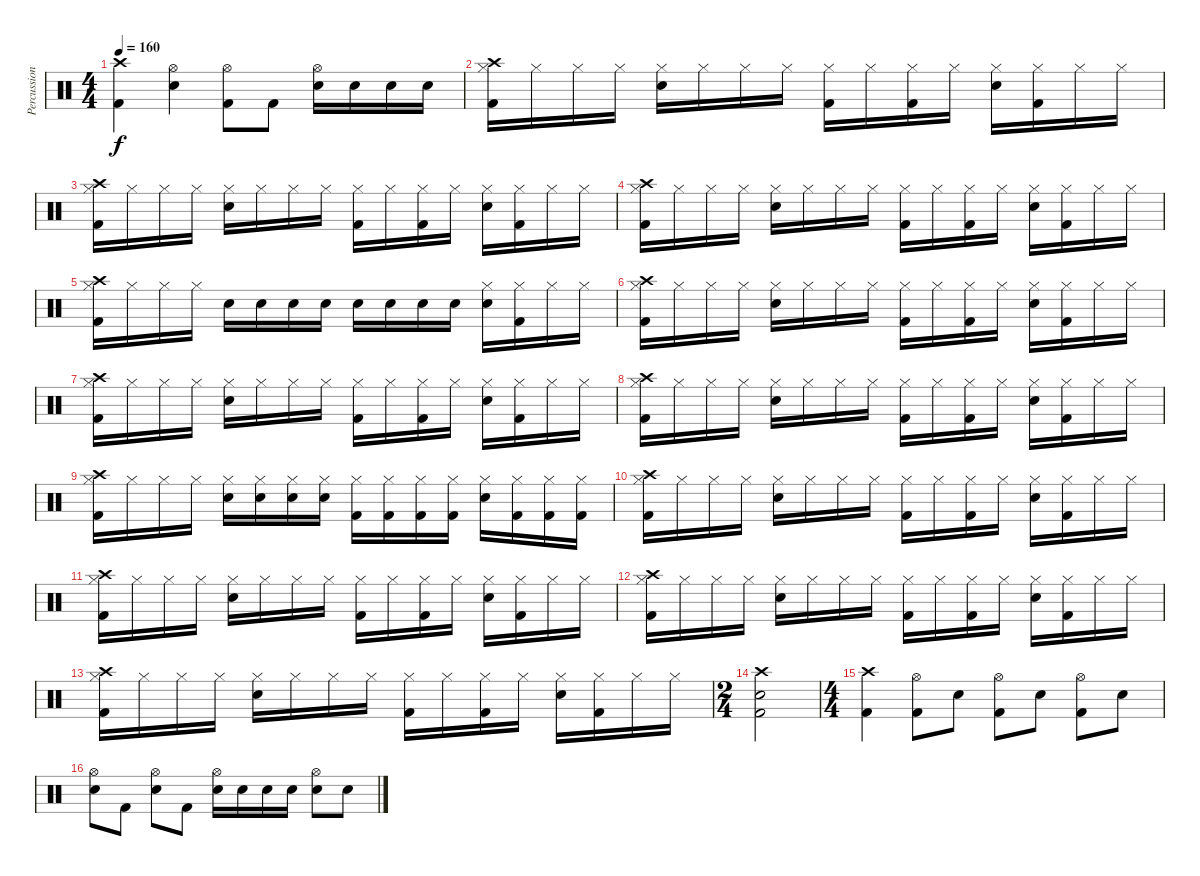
\track ("Percussion" "Percussion") {instrument percussion}
\staff {score}
\articulation defaults
\ts (4 4)
\tempo 160
\clef neutral
\ks c
("Crash high (hit)" "Kick (hit) 2").4{dy f} ("Hi-Hat (open)" "Electric Snare (hit)").4 ("Hi-Hat (open)" "Kick (hit) 2").8 "Kick (hit) 2".8 ("Hi-Hat (open)" "Electric Snare (hit)").16 "Electric Snare (hit)".16 "Electric Snare (hit)".16 "Electric Snare (hit)".16 |
("Kick (hit) 2" "Hi-Hat (closed)" "Crash high (hit)").16 "Hi-Hat (closed)".16 "Hi-Hat (closed)".16 "Hi-Hat (closed)".16 ("Electric Snare (hit)" "Hi-Hat (closed)").16 "Hi-Hat (closed)".16 "Hi-Hat (closed)".16 "Hi-Hat (closed)".16 ("Kick (hit) 2" "Hi-Hat (closed)").16 "Hi-Hat (closed)".16 ("Kick (hit) 2" "Hi-Hat (closed)").16 "Hi-Hat (closed)".16 ("Electric Snare (hit)" "Hi-Hat (closed)").16 ("Kick (hit) 2" "Hi-Hat (closed)").16 "Hi-Hat (closed)".16 "Hi-Hat (closed)".16 |
("Kick (hit) 2" "Hi-Hat (closed)" "Crash high (hit)").16 "Hi-Hat (closed)".16 "Hi-Hat (closed)".16 "Hi-Hat (closed)".16 ("Electric Snare (hit)" "Hi-Hat (closed)").16 "Hi-Hat (closed)".16 "Hi-Hat (closed)".16 "Hi-Hat (closed)".16 ("Kick (hit) 2" "Hi-Hat (closed)").16 "Hi-Hat (closed)".16 ("Kick (hit) 2" "Hi-Hat (closed)").16 "Hi-Hat (closed)".16 ("Electric Snare (hit)" "Hi-Hat (closed)").16 ("Kick (hit) 2" "Hi-Hat (closed)").16 "Hi-Hat (closed)".16 "Hi-Hat (closed)".16 |
("Kick (hit) 2" "Hi-Hat (closed)" "Crash high (hit)").16 "Hi-Hat (closed)".16 "Hi-Hat (closed)".16 "Hi-Hat (closed)".16 ("Electric Snare (hit)" "Hi-Hat (closed)").16 "Hi-Hat (closed)".16 "Hi-Hat (closed)".16 "Hi-Hat (closed)".16 ("Kick (hit) 2" "Hi-Hat (closed)").16 "Hi-Hat (closed)".16 ("Kick (hit) 2" "Hi-Hat (closed)").16 "Hi-Hat (closed)".16 ("Electric Snare (hit)" "Hi-Hat (closed)").16 ("Kick (hit) 2" "Hi-Hat (closed)").16 "Hi-Hat (closed)".16 "Hi-Hat (closed)".16 |
("Kick (hit) 2" "Hi-Hat (closed)" "Crash high (hit)").16 "Hi-Hat (closed)".16 "Hi-Hat (closed)".16 "Hi-Hat (closed)".16 "Electric Snare (hit)".16 "Electric Snare (hit)".16 "Electric Snare (hit)".16 "Electric Snare (hit)".16 "Electric Snare (hit)".16 "Electric Snare (hit)".16 "Electric Snare (hit)".16 "Electric Snare (hit)".16 ("Electric Snare (hit)" "Hi-Hat (closed)").16 ("Kick (hit) 2" "Hi-Hat (closed)").16 "Hi-Hat (closed)".16 "Hi-Hat (closed)".16 |
("Kick (hit) 2" "Hi-Hat (closed)" "Crash high (hit)").16 "Hi-Hat (closed)".16 "Hi-Hat (closed)".16 "Hi-Hat (closed)".16 ("Electric Snare (hit)" "Hi-Hat (closed)").16 "Hi-Hat (closed)".16 "Hi-Hat (closed)".16 "Hi-Hat (closed)".16 ("Kick (hit) 2" "Hi-Hat (closed)").16 "Hi-Hat (closed)".16 ("Kick (hit) 2" "Hi-Hat (closed)").16 "Hi-Hat (closed)".16 ("Electric Snare (hit)" "Hi-Hat (closed)").16 ("Kick (hit) 2" "Hi-Hat (closed)").16 "Hi-Hat (closed)".16 "Hi-Hat (closed)".16 |
("Kick (hit) 2" "Hi-Hat (closed)" "Crash high (hit)").16 "Hi-Hat (closed)".16 "Hi-Hat (closed)".16 "Hi-Hat (closed)".16 ("Electric Snare (hit)" "Hi-Hat (closed)").16 "Hi-Hat (closed)".16 "Hi-Hat (closed)".16 "Hi-Hat (closed)".16 ("Kick (hit) 2" "Hi-Hat (closed)").16 "Hi-Hat (closed)".16 ("Kick (hit) 2" "Hi-Hat (closed)").16 "Hi-Hat (closed)".16 ("Electric Snare (hit)" "Hi-Hat (closed)").16 ("Kick (hit) 2" "Hi-Hat (closed)").16 "Hi-Hat (closed)".16 "Hi-Hat (closed)".16 |
("Kick (hit) 2" "Hi-Hat (closed)" "Crash high (hit)").16 "Hi-Hat (closed)".16 "Hi-Hat (closed)".16 "Hi-Hat (closed)".16 ("Electric Snare (hit)" "Hi-Hat (closed)").16 "Hi-Hat (closed)".16 "Hi-Hat (closed)".16 "Hi-Hat (closed)".16 ("Kick (hit) 2" "Hi-Hat (closed)").16 "Hi-Hat (closed)".16 ("Kick (hit) 2" "Hi-Hat (closed)").16 "Hi-Hat (closed)".16 ("Electric Snare (hit)" "Hi-Hat (closed)").16 ("Kick (hit) 2" "Hi-Hat (closed)").16 "Hi-Hat (closed)".16 "Hi-Hat (closed)".16 |
("Kick (hit) 2" "Hi-Hat (closed)" "Crash high (hit)").16 "Hi-Hat (closed)".16 "Hi-Hat (closed)".16 "Hi-Hat (closed)".16 ("Electric Snare (hit)" "Hi-Hat (closed)").16 ("Electric Snare (hit)" "Hi-Hat (closed)").16 ("Electric Snare (hit)" "Hi-Hat (closed)").16 ("Electric Snare (hit)" "Hi-Hat (closed)").16 ("Kick (hit) 2" "Hi-Hat (closed)").16 ("Kick (hit) 2" "Hi-Hat (closed)").16 ("Kick (hit) 2" "Hi-Hat (closed)").16 ("Kick (hit) 2" "Hi-Hat (closed)").16 ("Electric Snare (hit)" "Hi-Hat (closed)").16 ("Kick (hit) 2" "Hi-Hat (closed)").16 ("Kick (hit) 2" "Hi-Hat (closed)").16 ("Kick (hit) 2" "Hi-Hat (closed)").16 |
("Kick (hit) 2" "Hi-Hat (closed)" "Crash high (hit)").16 "Hi-Hat (closed)".16 "Hi-Hat (closed)".16 "Hi-Hat (closed)".16 ("Electric Snare (hit)" "Hi-Hat (closed)").16 "Hi-Hat (closed)".16 "Hi-Hat (closed)".16 "Hi-Hat (closed)".16 ("Kick (hit) 2" "Hi-Hat (closed)").16 "Hi-Hat (closed)".16 ("Kick (hit) 2" "Hi-Hat (closed)").16 "Hi-Hat (closed)".16 ("Electric Snare (hit)" "Hi-Hat (closed)").16 ("Kick (hit) 2" "Hi-Hat (closed)").16 "Hi-Hat (closed)".16 "Hi-Hat (closed)".16 |
("Kick (hit) 2" "Hi-Hat (closed)" "Crash high (hit)").16 "Hi-Hat (closed)".16 "Hi-Hat (closed)".16 "Hi-Hat (closed)".16 ("Electric Snare (hit)" "Hi-Hat (closed)").16 "Hi-Hat (closed)".16 "Hi-Hat (closed)".16 "Hi-Hat (closed)".16 ("Kick (hit) 2" "Hi-Hat (closed)").16 "Hi-Hat (closed)".16 ("Kick (hit) 2" "Hi-Hat (closed)").16 "Hi-Hat (closed)".16 ("Electric Snare (hit)" "Hi-Hat (closed)").16 ("Kick (hit) 2" "Hi-Hat (closed)").16 "Hi-Hat (closed)".16 "Hi-Hat (closed)".16 |
("Kick (hit) 2" "Hi-Hat (closed)" "Crash high (hit)").16 "Hi-Hat (closed)".16 "Hi-Hat (closed)".16 "Hi-Hat (closed)".16 ("Electric Snare (hit)" "Hi-Hat (closed)").16 "Hi-Hat (closed)".16 "Hi-Hat (closed)".16 "Hi-Hat (closed)".16 ("Kick (hit) 2" "Hi-Hat (closed)").16 "Hi-Hat (closed)".16 ("Kick (hit) 2" "Hi-Hat (closed)").16 "Hi-Hat (closed)".16 ("Electric Snare (hit)" "Hi-Hat (closed)").16 ("Kick (hit) 2" "Hi-Hat (closed)").16 "Hi-Hat (closed)".16 "Hi-Hat (closed)".16 |
("Kick (hit) 2" "Hi-Hat (closed)" "Crash high (hit)").16 "Hi-Hat (closed)".16 "Hi-Hat (closed)".16 "Hi-Hat (closed)".16 ("Electric Snare (hit)" "Hi-Hat (closed)").16 "Hi-Hat (closed)".16 "Hi-Hat (closed)".16 "Hi-Hat (closed)".16 ("Kick (hit) 2" "Hi-Hat (closed)").16 "Hi-Hat (closed)".16 ("Kick (hit) 2" "Hi-Hat (closed)").16 "Hi-Hat (closed)".16 ("Electric Snare (hit)" "Hi-Hat (closed)").16 ("Kick (hit) 2" "Hi-Hat (closed)").16 "Hi-Hat (closed)".16 "Hi-Hat (closed)".16 |
\ts (2 4)
("Crash high (hit)" "Kick (hit) 2" "Electric Snare (hit)").2 |
\ts (4 4)
("Crash high (hit)" "Kick (hit) 2").4 ("Hi-Hat (open)" "Kick (hit) 2").8 "Electric Snare (hit)".8 ("Hi-Hat (open)" "Kick (hit) 2").8 "Electric Snare (hit)".8 ("Hi-Hat (open)" "Kick (hit) 2").8 "Electric Snare (hit)".8 |
("Hi-Hat (open)" "Electric Snare (hit)").8 "Kick (hit) 2".8 ("Hi-Hat (open)" "Electric Snare (hit)").8 "Kick (hit) 2".8 ("Hi-Hat (open)" "Electric Snare (hit)").16 "Electric Snare (hit)".16 "Electric Snare (hit)".16 "Electric Snare (hit)".16 ("Hi-Hat (open)" "Electric Snare (hit)").8 "Electric Snare (hit)".8
